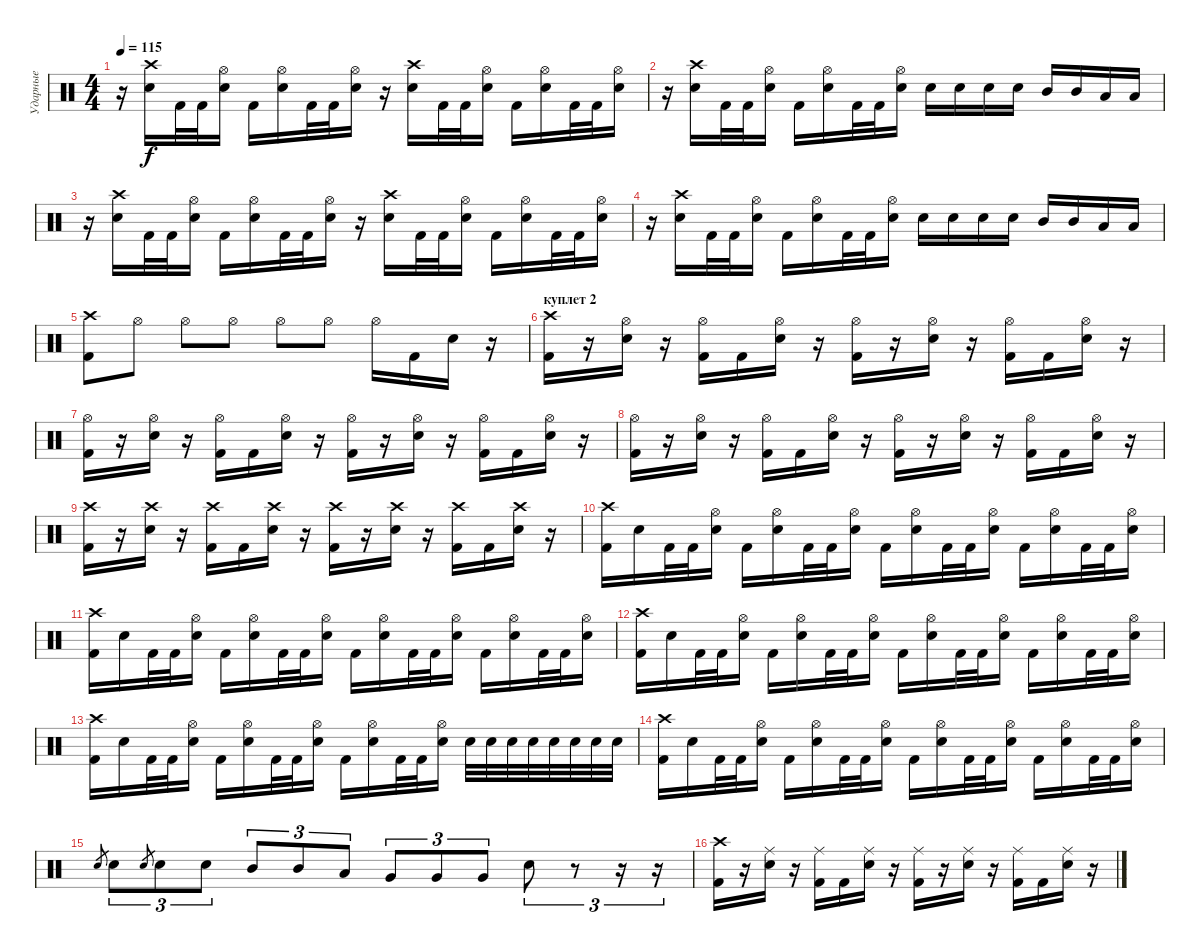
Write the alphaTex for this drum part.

\track ("Ударные" "Ударные") {instrument percussion}
\staff {score}
\articulation defaults
\ts (4 4)
\section ("" "")
\tempo 115
\clef neutral
\ks c
r.16{dy f} ("Crash high (hit)" "Snare (hit) 2").16 "Kick (hit) 2".32 "Kick (hit) 2".32 ("Hi-Hat (open)" "Snare (hit) 2").16 "Kick (hit) 2".16 ("Hi-Hat (open)" "Snare (hit) 2").16 "Kick (hit) 2".32 "Kick (hit) 2".32 ("Hi-Hat (open)" "Snare (hit) 2").16 r.16 ("Crash high (hit)" "Snare (hit) 2").16 "Kick (hit) 2".32 "Kick (hit) 2".32 ("Hi-Hat (open)" "Snare (hit) 2").16 "Kick (hit) 2".16 ("Hi-Hat (open)" "Snare (hit) 2").16 "Kick (hit) 2".32 "Kick (hit) 2".32 ("Hi-Hat (open)" "Snare (hit) 2").16 |
r.16 ("Crash high (hit)" "Snare (hit) 2").16 "Kick (hit) 2".32 "Kick (hit) 2".32 ("Hi-Hat (open)" "Snare (hit) 2").16 "Kick (hit) 2".16 ("Hi-Hat (open)" "Snare (hit) 2").16 "Kick (hit) 2".32 "Kick (hit) 2".32 ("Hi-Hat (open)" "Snare (hit) 2").16 "Snare (hit) 2".16 "Snare (hit) 2".16 "Snare (hit) 2".16 "Snare (hit) 2".16 "Mid Tom (hit)".16 "Mid Tom (hit)".16 "Low Tom (hit)".16 "Low Tom (hit)".16 |
r.16 ("Crash high (hit)" "Snare (hit) 2").16 "Kick (hit) 2".32 "Kick (hit) 2".32 ("Hi-Hat (open)" "Snare (hit) 2").16 "Kick (hit) 2".16 ("Hi-Hat (open)" "Snare (hit) 2").16 "Kick (hit) 2".32 "Kick (hit) 2".32 ("Hi-Hat (open)" "Snare (hit) 2").16 r.16 ("Crash high (hit)" "Snare (hit) 2").16 "Kick (hit) 2".32 "Kick (hit) 2".32 ("Hi-Hat (open)" "Snare (hit) 2").16 "Kick (hit) 2".16 ("Hi-Hat (open)" "Snare (hit) 2").16 "Kick (hit) 2".32 "Kick (hit) 2".32 ("Hi-Hat (open)" "Snare (hit) 2").16 |
r.16 ("Crash high (hit)" "Snare (hit) 2").16 "Kick (hit) 2".32 "Kick (hit) 2".32 ("Hi-Hat (open)" "Snare (hit) 2").16 "Kick (hit) 2".16 ("Hi-Hat (open)" "Snare (hit) 2").16 "Kick (hit) 2".32 "Kick (hit) 2".32 ("Hi-Hat (open)" "Snare (hit) 2").16 "Snare (hit) 2".16 "Snare (hit) 2".16 "Snare (hit) 2".16 "Snare (hit) 2".16 "Mid Tom (hit)".16 "Mid Tom (hit)".16 "Low Tom (hit)".16 "Low Tom (hit)".16 |
("Crash high (hit)" "Kick (hit) 2").8 "Hi-Hat (open)".8 "Hi-Hat (open)".8 "Hi-Hat (open)".8 "Hi-Hat (open)".8 "Hi-Hat (open)".8 "Hi-Hat (open)".16 "Kick (hit) 2".16 "Snare (hit) 2".16 r.16 |
\section ("" "куплет 2")
("Crash high (hit)" "Kick (hit) 2").16 r.16 ("Hi-Hat (open)" "Snare (hit) 2").16 r.16 ("Hi-Hat (open)" "Kick (hit) 2").16 "Kick (hit) 2".16 ("Hi-Hat (open)" "Snare (hit) 2").16 r.16 ("Hi-Hat (open)" "Kick (hit) 2").16 r.16 ("Hi-Hat (open)" "Snare (hit) 2").16 r.16 ("Hi-Hat (open)" "Kick (hit) 2").16 "Kick (hit) 2".16 ("Hi-Hat (open)" "Snare (hit) 2").16 r.16 |
("Hi-Hat (open)" "Kick (hit) 2").16 r.16 ("Hi-Hat (open)" "Snare (hit) 2").16 r.16 ("Hi-Hat (open)" "Kick (hit) 2").16 "Kick (hit) 2".16 ("Hi-Hat (open)" "Snare (hit) 2").16 r.16 ("Hi-Hat (open)" "Kick (hit) 2").16 r.16 ("Hi-Hat (open)" "Snare (hit) 2").16 r.16 ("Hi-Hat (open)" "Kick (hit) 2").16 "Kick (hit) 2".16 ("Hi-Hat (open)" "Snare (hit) 2").16 r.16 |
("Hi-Hat (open)" "Kick (hit) 2").16 r.16 ("Hi-Hat (open)" "Snare (hit) 2").16 r.16 ("Hi-Hat (open)" "Kick (hit) 2").16 "Kick (hit) 2".16 ("Hi-Hat (open)" "Snare (hit) 2").16 r.16 ("Hi-Hat (open)" "Kick (hit) 2").16 r.16 ("Hi-Hat (open)" "Snare (hit) 2").16 r.16 ("Hi-Hat (open)" "Kick (hit) 2").16 "Kick (hit) 2".16 ("Hi-Hat (open)" "Snare (hit) 2").16 r.16 |
("Crash high (hit)" "Kick (hit) 2").16 r.16 ("Crash high (hit)" "Snare (hit) 2").16 r.16 ("Crash high (hit)" "Kick (hit) 2").16 "Kick (hit) 2".16 ("Crash high (hit)" "Snare (hit) 2").16 r.16 ("Crash high (hit)" "Kick (hit) 2").16 r.16 ("Crash high (hit)" "Snare (hit) 2").16 r.16 ("Crash high (hit)" "Kick (hit) 2").16 "Kick (hit) 2".16 ("Crash high (hit)" "Snare (hit) 2").16 r.16 |
("Crash high (hit)" "Kick (hit) 2").16 "Snare (hit) 2".16 "Kick (hit) 2".32 "Kick (hit) 2".32 ("Hi-Hat (open)" "Snare (hit) 2").16 "Kick (hit) 2".16 ("Hi-Hat (open)" "Snare (hit) 2").16 "Kick (hit) 2".32 "Kick (hit) 2".32 ("Hi-Hat (open)" "Snare (hit) 2").16 "Kick (hit) 2".16 ("Hi-Hat (open)" "Snare (hit) 2").16 "Kick (hit) 2".32 "Kick (hit) 2".32 ("Hi-Hat (open)" "Snare (hit) 2").16 "Kick (hit) 2".16 ("Hi-Hat (open)" "Snare (hit) 2").16 "Kick (hit) 2".32 "Kick (hit) 2".32 ("Hi-Hat (open)" "Snare (hit) 2").16 |
("Crash high (hit)" "Kick (hit) 2").16 "Snare (hit) 2".16 "Kick (hit) 2".32 "Kick (hit) 2".32 ("Hi-Hat (open)" "Snare (hit) 2").16 "Kick (hit) 2".16 ("Hi-Hat (open)" "Snare (hit) 2").16 "Kick (hit) 2".32 "Kick (hit) 2".32 ("Hi-Hat (open)" "Snare (hit) 2").16 "Kick (hit) 2".16 ("Hi-Hat (open)" "Snare (hit) 2").16 "Kick (hit) 2".32 "Kick (hit) 2".32 ("Hi-Hat (open)" "Snare (hit) 2").16 "Kick (hit) 2".16 ("Hi-Hat (open)" "Snare (hit) 2").16 "Kick (hit) 2".32 "Kick (hit) 2".32 ("Hi-Hat (open)" "Snare (hit) 2").16 |
("Crash high (hit)" "Kick (hit) 2").16 "Snare (hit) 2".16 "Kick (hit) 2".32 "Kick (hit) 2".32 ("Hi-Hat (open)" "Snare (hit) 2").16 "Kick (hit) 2".16 ("Hi-Hat (open)" "Snare (hit) 2").16 "Kick (hit) 2".32 "Kick (hit) 2".32 ("Hi-Hat (open)" "Snare (hit) 2").16 "Kick (hit) 2".16 ("Hi-Hat (open)" "Snare (hit) 2").16 "Kick (hit) 2".32 "Kick (hit) 2".32 ("Hi-Hat (open)" "Snare (hit) 2").16 "Kick (hit) 2".16 ("Hi-Hat (open)" "Snare (hit) 2").16 "Kick (hit) 2".32 "Kick (hit) 2".32 ("Hi-Hat (open)" "Snare (hit) 2").16 |
("Crash high (hit)" "Kick (hit) 2").16 "Snare (hit) 2".16 "Kick (hit) 2".32 "Kick (hit) 2".32 ("Hi-Hat (open)" "Snare (hit) 2").16 "Kick (hit) 2".16 ("Hi-Hat (open)" "Snare (hit) 2").16 "Kick (hit) 2".32 "Kick (hit) 2".32 ("Hi-Hat (open)" "Snare (hit) 2").16 "Kick (hit) 2".16 ("Hi-Hat (open)" "Snare (hit) 2").16 "Kick (hit) 2".32 "Kick (hit) 2".32 ("Hi-Hat (open)" "Snare (hit) 2").16 "Snare (hit) 2".32 "Snare (hit) 2".32 "Snare (hit) 2".32 "Snare (hit) 2".32 "Snare (hit) 2".32 "Snare (hit) 2".32 "Snare (hit) 2".32 "Snare (hit) 2".32 |
("Crash high (hit)" "Kick (hit) 2").16 "Snare (hit) 2".16 "Kick (hit) 2".32 "Kick (hit) 2".32 ("Hi-Hat (open)" "Snare (hit) 2").16 "Kick (hit) 2".16 ("Hi-Hat (open)" "Snare (hit) 2").16 "Kick (hit) 2".32 "Kick (hit) 2".32 ("Hi-Hat (open)" "Snare (hit) 2").16 "Kick (hit) 2".16 ("Hi-Hat (open)" "Snare (hit) 2").16 "Kick (hit) 2".32 "Kick (hit) 2".32 ("Hi-Hat (open)" "Snare (hit) 2").16 "Kick (hit) 2".16 ("Hi-Hat (open)" "Snare (hit) 2").16 "Kick (hit) 2".32 "Kick (hit) 2".32 ("Hi-Hat (open)" "Snare (hit) 2").16 |
"Snare (hit) 2".8{gr} "Snare (hit) 2".8{tu (3 2)} "Snare (hit) 2".8{gr} "Snare (hit) 2".8{tu (3 2)} "Snare (hit) 2".8{tu (3 2)} "Mid Tom (hit)".8{tu (3 2)} "Mid Tom (hit)".8{tu (3 2)} "Low Tom (hit)".8{tu (3 2)} "Very Low Tom (hit)".8{tu (3 2)} "Very Low Tom (hit)".8{tu (3 2)} "Very Low Tom (hit)".8{tu (3 2)} "Snare (hit) 2".8{tu (3 2)} r.8{tu (3 2)} r.16{tu (3 2)} r.16{tu (3 2)} |
\section ("" "")
("Crash high (hit)" "Kick (hit) 2").16 r.16 ("Ride (middle)" "Snare (hit) 2").16 r.16 ("Ride (middle)" "Kick (hit) 2").16 "Kick (hit) 2".16 ("Ride (middle)" "Snare (hit) 2").16 r.16 ("Ride (middle)" "Kick (hit) 2").16 r.16 ("Ride (middle)" "Snare (hit) 2").16 r.16 ("Ride (middle)" "Kick (hit) 2").16 "Kick (hit) 2".16 ("Ride (middle)" "Snare (hit) 2").16 r.16
